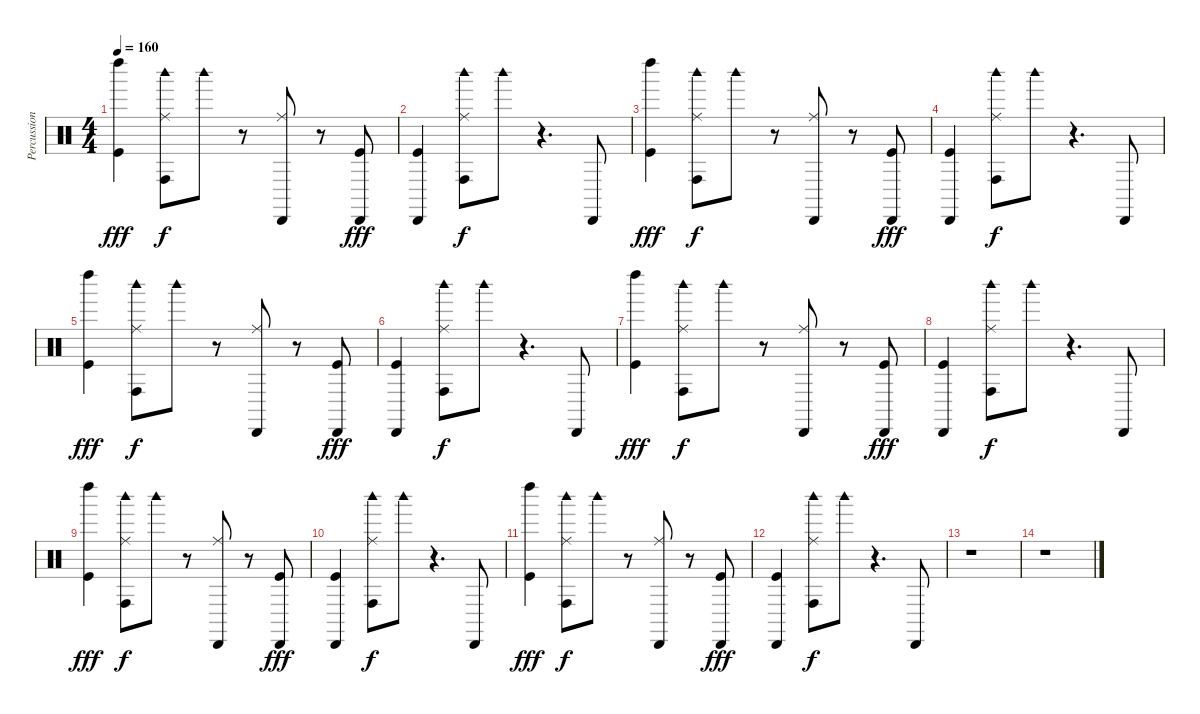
\track ("Percussion" "Percussion") {instrument percussion}
\staff {score}
\articulation defaults
\ts (4 4)
\tempo 160
\clef neutral
\ks c
("Left Maraca (hit)" "Kick (hit)").4{dy fff} ("Conga high (hit)" "Ride (middle)" "Woodblock high (hit)").8{dy f} "Woodblock high (hit)".8 r.8 ("Cabasa (hit)" "Ride (middle)").8 r.8 ("Cabasa (hit)" "Kick (hit)").8{dy fff} |
("Cabasa (hit)" "Kick (hit)").4 ("Conga high (hit)" "Ride (middle)" "Woodblock high (hit)").8{dy f} "Woodblock high (hit)".8 r.4{d} "Cabasa (hit)".8 |
("Left Maraca (hit)" "Kick (hit)").4{dy fff} ("Conga high (hit)" "Ride (middle)" "Woodblock high (hit)").8{dy f} "Woodblock high (hit)".8 r.8 ("Cabasa (hit)" "Ride (middle)").8 r.8 ("Cabasa (hit)" "Kick (hit)").8{dy fff} |
("Cabasa (hit)" "Kick (hit)").4 ("Conga high (hit)" "Ride (middle)" "Woodblock high (hit)").8{dy f} "Woodblock high (hit)".8 r.4{d} "Cabasa (hit)".8 |
("Left Maraca (hit)" "Kick (hit)").4{dy fff} ("Conga high (hit)" "Ride (middle)" "Woodblock high (hit)").8{dy f} "Woodblock high (hit)".8 r.8 ("Cabasa (hit)" "Ride (middle)").8 r.8 ("Cabasa (hit)" "Kick (hit)").8{dy fff} |
("Cabasa (hit)" "Kick (hit)").4 ("Conga high (hit)" "Ride (middle)" "Woodblock high (hit)").8{dy f} "Woodblock high (hit)".8 r.4{d} "Cabasa (hit)".8 |
("Left Maraca (hit)" "Kick (hit)").4{dy fff} ("Conga high (hit)" "Ride (middle)" "Woodblock high (hit)").8{dy f} "Woodblock high (hit)".8 r.8 ("Cabasa (hit)" "Ride (middle)").8 r.8 ("Cabasa (hit)" "Kick (hit)").8{dy fff} |
("Cabasa (hit)" "Kick (hit)").4 ("Conga high (hit)" "Ride (middle)" "Woodblock high (hit)").8{dy f} "Woodblock high (hit)".8 r.4{d} "Cabasa (hit)".8 |
("Left Maraca (hit)" "Kick (hit)").4{dy fff} ("Conga high (hit)" "Ride (middle)" "Woodblock high (hit)").8{dy f} "Woodblock high (hit)".8 r.8 ("Cabasa (hit)" "Ride (middle)").8 r.8 ("Cabasa (hit)" "Kick (hit)").8{dy fff} |
("Cabasa (hit)" "Kick (hit)").4 ("Conga high (hit)" "Ride (middle)" "Woodblock high (hit)").8{dy f} "Woodblock high (hit)".8 r.4{d} "Cabasa (hit)".8 |
("Left Maraca (hit)" "Kick (hit)").4{dy fff} ("Conga high (hit)" "Ride (middle)" "Woodblock high (hit)").8{dy f} "Woodblock high (hit)".8 r.8 ("Cabasa (hit)" "Ride (middle)").8 r.8 ("Cabasa (hit)" "Kick (hit)").8{dy fff} |
("Cabasa (hit)" "Kick (hit)").4 ("Conga high (hit)" "Ride (middle)" "Woodblock high (hit)").8{dy f} "Woodblock high (hit)".8 r.4{d} "Cabasa (hit)".8 |
r.1 |
r.1
